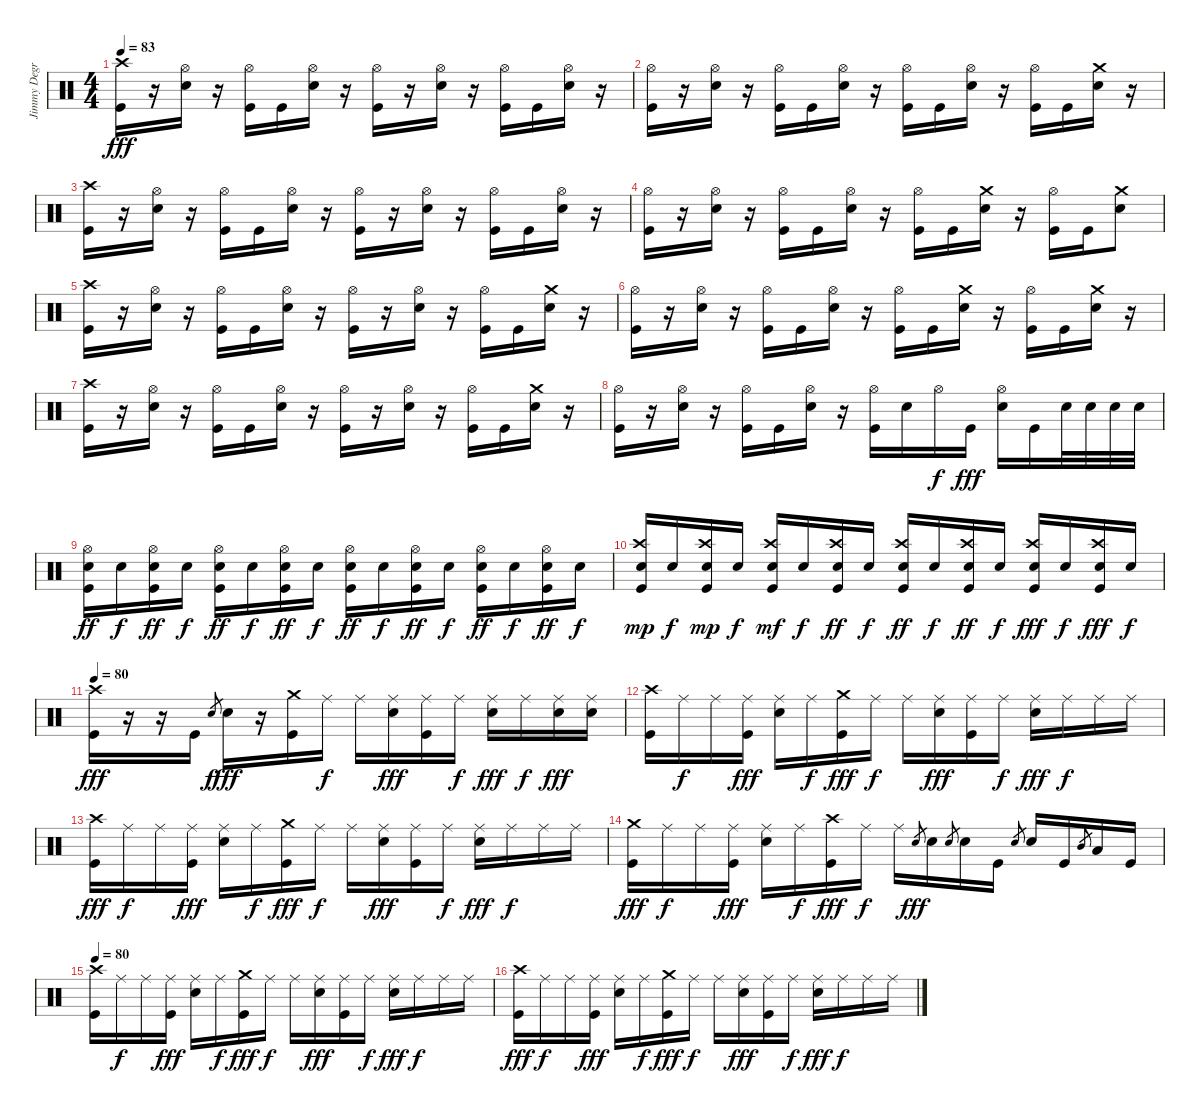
\track ("Jimmy Degrasso" "Jimmy Degr") {instrument percussion}
\staff {score}
\articulation defaults
\ts (4 4)
\tempo 83
\clef neutral
\ks c
("Kick (hit)" "Crash high (hit)").16{dy fff} r.16 ("Electric Snare (hit)" "Hi-Hat (open)").16 r.16 ("Kick (hit)" "Hi-Hat (open)").16 "Kick (hit)".16 ("Electric Snare (hit)" "Hi-Hat (open)").16 r.16 ("Kick (hit)" "Hi-Hat (open)").16 r.16 ("Electric Snare (hit)" "Hi-Hat (open)").16 r.16 ("Kick (hit)" "Hi-Hat (open)").16 "Kick (hit)".16 ("Electric Snare (hit)" "Hi-Hat (open)").16 r.16 |
("Kick (hit)" "Hi-Hat (open)").16 r.16 ("Electric Snare (hit)" "Hi-Hat (open)").16 r.16 ("Kick (hit)" "Hi-Hat (open)").16 "Kick (hit)".16 ("Electric Snare (hit)" "Hi-Hat (open)").16 r.16 ("Kick (hit)" "Hi-Hat (open)").16 "Kick (hit)".16 ("Electric Snare (hit)" "Hi-Hat (open)").16 r.16 ("Kick (hit)" "Hi-Hat (open)").16 "Kick (hit)".16 ("Electric Snare (hit)" "Crash medium (hit)").16 r.16 |
("Kick (hit)" "Crash high (hit)").16 r.16 ("Electric Snare (hit)" "Hi-Hat (open)").16 r.16 ("Kick (hit)" "Hi-Hat (open)").16 "Kick (hit)".16 ("Electric Snare (hit)" "Hi-Hat (open)").16 r.16 ("Kick (hit)" "Hi-Hat (open)").16 r.16 ("Electric Snare (hit)" "Hi-Hat (open)").16 r.16 ("Kick (hit)" "Hi-Hat (open)").16 "Kick (hit)".16 ("Electric Snare (hit)" "Hi-Hat (open)").16 r.16 |
("Kick (hit)" "Hi-Hat (open)").16 r.16 ("Electric Snare (hit)" "Hi-Hat (open)").16 r.16 ("Kick (hit)" "Hi-Hat (open)").16 "Kick (hit)".16 ("Electric Snare (hit)" "Hi-Hat (open)").16 r.16 ("Kick (hit)" "Hi-Hat (open)").16 "Kick (hit)".16 ("Electric Snare (hit)" "Crash medium (hit)").16 r.16 ("Kick (hit)" "Hi-Hat (open)").16 "Kick (hit)".16 ("Electric Snare (hit)" "Crash medium (hit)").8 |
("Kick (hit)" "Crash high (hit)").16 r.16 ("Electric Snare (hit)" "Hi-Hat (open)").16 r.16 ("Kick (hit)" "Hi-Hat (open)").16 "Kick (hit)".16 ("Electric Snare (hit)" "Hi-Hat (open)").16 r.16 ("Kick (hit)" "Hi-Hat (open)").16 r.16 ("Electric Snare (hit)" "Hi-Hat (open)").16 r.16 ("Kick (hit)" "Hi-Hat (open)").16 "Kick (hit)".16 ("Electric Snare (hit)" "Crash medium (hit)").16 r.16 |
("Kick (hit)" "Hi-Hat (open)").16 r.16 ("Electric Snare (hit)" "Hi-Hat (open)").16 r.16 ("Kick (hit)" "Hi-Hat (open)").16 "Kick (hit)".16 ("Electric Snare (hit)" "Hi-Hat (open)").16 r.16 ("Kick (hit)" "Hi-Hat (open)").16 "Kick (hit)".16 ("Electric Snare (hit)" "Crash medium (hit)").16 r.16 ("Kick (hit)" "Hi-Hat (open)").16 "Kick (hit)".16 ("Electric Snare (hit)" "Crash medium (hit)").16 r.16 |
("Kick (hit)" "Crash high (hit)").16 r.16 ("Electric Snare (hit)" "Hi-Hat (open)").16 r.16 ("Kick (hit)" "Hi-Hat (open)").16 "Kick (hit)".16 ("Electric Snare (hit)" "Hi-Hat (open)").16 r.16 ("Kick (hit)" "Hi-Hat (open)").16 r.16 ("Electric Snare (hit)" "Hi-Hat (open)").16 r.16 ("Kick (hit)" "Hi-Hat (open)").16 "Kick (hit)".16 ("Electric Snare (hit)" "Crash medium (hit)").16 r.16 |
("Kick (hit)" "Hi-Hat (open)").16 r.16 ("Electric Snare (hit)" "Hi-Hat (open)").16 r.16 ("Kick (hit)" "Hi-Hat (open)").16 "Kick (hit)".16 ("Electric Snare (hit)" "Hi-Hat (open)").16 r.16 ("Kick (hit)" "Hi-Hat (open)").16 "Electric Snare (hit)".16 "Hi-Hat (open)".16{dy f} "Kick (hit)".16{dy fff} ("Electric Snare (hit)" "Hi-Hat (open)").16 "Kick (hit)".16 "Electric Snare (hit)".32 "Electric Snare (hit)".32 "Electric Snare (hit)".32 "Electric Snare (hit)".32 |
("Kick (hit)" "Electric Snare (hit)" "Hi-Hat (open)").16{dy ff} "Electric Snare (hit)".16{dy f} ("Kick (hit)" "Electric Snare (hit)" "Hi-Hat (open)").16{dy ff} "Electric Snare (hit)".16{dy f} ("Kick (hit)" "Electric Snare (hit)" "Hi-Hat (open)").16{dy ff} "Electric Snare (hit)".16{dy f} ("Kick (hit)" "Electric Snare (hit)" "Hi-Hat (open)").16{dy ff} "Electric Snare (hit)".16{dy f} ("Kick (hit)" "Electric Snare (hit)" "Hi-Hat (open)").16{dy ff} "Electric Snare (hit)".16{dy f} ("Kick (hit)" "Electric Snare (hit)" "Hi-Hat (open)").16{dy ff} "Electric Snare (hit)".16{dy f} ("Kick (hit)" "Electric Snare (hit)" "Hi-Hat (open)").16{dy ff} "Electric Snare (hit)".16{dy f} ("Kick (hit)" "Electric Snare (hit)" "Hi-Hat (open)").16{dy ff} "Electric Snare (hit)".16{dy f} |
("Kick (hit)" "Electric Snare (hit)" "Crash high (hit)").16{dy mp} "Electric Snare (hit)".16{dy f} ("Kick (hit)" "Electric Snare (hit)" "Crash high (hit)").16{dy mp} "Electric Snare (hit)".16{dy f} ("Kick (hit)" "Electric Snare (hit)" "Crash high (hit)").16{dy mf} "Electric Snare (hit)".16{dy f} ("Kick (hit)" "Electric Snare (hit)" "Crash high (hit)").16{dy ff} "Electric Snare (hit)".16{dy f} ("Kick (hit)" "Electric Snare (hit)" "Crash high (hit)").16{dy ff} "Electric Snare (hit)".16{dy f} ("Kick (hit)" "Electric Snare (hit)" "Crash high (hit)").16{dy ff} "Electric Snare (hit)".16{dy f} ("Kick (hit)" "Electric Snare (hit)" "Crash high (hit)").16{dy fff} "Electric Snare (hit)".16{dy f} ("Kick (hit)" "Electric Snare (hit)" "Crash high (hit)").16{dy fff} "Electric Snare (hit)".16{dy f} |
\tempo 80
("Kick (hit)" "Crash high (hit)").16{dy fff} r.16 r.16 "Kick (hit)".16 "Electric Snare (hit)".8{gr dy f} "Electric Snare (hit)".16{dy fff} r.16 ("Kick (hit)" "Crash medium (hit)").16 "Ride (middle)".16{dy f} "Ride (middle)".16 ("Electric Snare (hit)" "Ride (middle)").16{dy fff} ("Kick (hit)" "Ride (middle)").16 "Ride (middle)".16{dy f} ("Electric Snare (hit)" "Ride (middle)").16{dy fff} "Ride (middle)".16{dy f} ("Electric Snare (hit)" "Ride (middle)").16{dy fff} ("Electric Snare (hit)" "Ride (middle)").16 |
("Kick (hit)" "Crash high (hit)").16 "Ride (middle)".16{dy f} "Ride (middle)".16 ("Kick (hit)" "Ride (middle)").16{dy fff} ("Electric Snare (hit)" "Ride (middle)").16 "Ride (middle)".16{dy f} ("Kick (hit)" "Crash medium (hit)").16{dy fff} "Ride (middle)".16{dy f} "Ride (middle)".16 ("Electric Snare (hit)" "Ride (middle)").16{dy fff} ("Kick (hit)" "Ride (middle)").16 "Ride (middle)".16{dy f} ("Electric Snare (hit)" "Ride (middle)").16{dy fff} "Ride (middle)".16{dy f} "Ride (middle)".16 "Ride (middle)".16 |
("Kick (hit)" "Crash high (hit)").16{dy fff} "Ride (middle)".16{dy f} "Ride (middle)".16 ("Kick (hit)" "Ride (middle)").16{dy fff} ("Electric Snare (hit)" "Ride (middle)").16 "Ride (middle)".16{dy f} ("Kick (hit)" "Crash medium (hit)").16{dy fff} "Ride (middle)".16{dy f} "Ride (middle)".16 ("Electric Snare (hit)" "Ride (middle)").16{dy fff} ("Kick (hit)" "Ride (middle)").16 "Ride (middle)".16{dy f} ("Electric Snare (hit)" "Ride (middle)").16{dy fff} "Ride (middle)".16{dy f} "Ride (middle)".16 "Ride (middle)".16 |
("Kick (hit)" "Crash medium (hit)").16{dy fff} "Ride (middle)".16{dy f} "Ride (middle)".16 ("Kick (hit)" "Ride (middle)").16{dy fff} ("Electric Snare (hit)" "Ride (middle)").16 "Ride (middle)".16{dy f} ("Kick (hit)" "Crash high (hit)").16{dy fff} "Ride (middle)".16{dy f} "Ride (middle)".16 "Electric Snare (hit)".8{gr dy fff} "Electric Snare (hit)".16 "Electric Snare (hit)".8{gr} "Electric Snare (hit)".16 "Kick (hit)".16 "Electric Snare (hit)".8{gr} "Electric Snare (hit)".16 "Kick (hit)".16 "Mid Tom (hit)".8{gr} "Low Tom (hit)".16 "Kick (hit)".16 |
\tempo 80
("Kick (hit)" "Crash high (hit)").16 "Ride (middle)".16{dy f} "Ride (middle)".16 ("Kick (hit)" "Ride (middle)").16{dy fff} ("Electric Snare (hit)" "Ride (middle)").16 "Ride (middle)".16{dy f} ("Kick (hit)" "Crash medium (hit)").16{dy fff} "Ride (middle)".16{dy f} "Ride (middle)".16 ("Electric Snare (hit)" "Ride (middle)").16{dy fff} ("Kick (hit)" "Ride (middle)").16 "Ride (middle)".16{dy f} ("Electric Snare (hit)" "Ride (middle)").16{dy fff} "Ride (middle)".16{dy f} "Ride (middle)".16 "Ride (middle)".16 |
("Kick (hit)" "Crash high (hit)").16{dy fff} "Ride (middle)".16{dy f} "Ride (middle)".16 ("Kick (hit)" "Ride (middle)").16{dy fff} ("Electric Snare (hit)" "Ride (middle)").16 "Ride (middle)".16{dy f} ("Kick (hit)" "Crash medium (hit)").16{dy fff} "Ride (middle)".16{dy f} "Ride (middle)".16 ("Electric Snare (hit)" "Ride (middle)").16{dy fff} ("Kick (hit)" "Ride (middle)").16 "Ride (middle)".16{dy f} ("Electric Snare (hit)" "Ride (middle)").16{dy fff} "Ride (middle)".16{dy f} "Ride (middle)".16 "Ride (middle)".16
